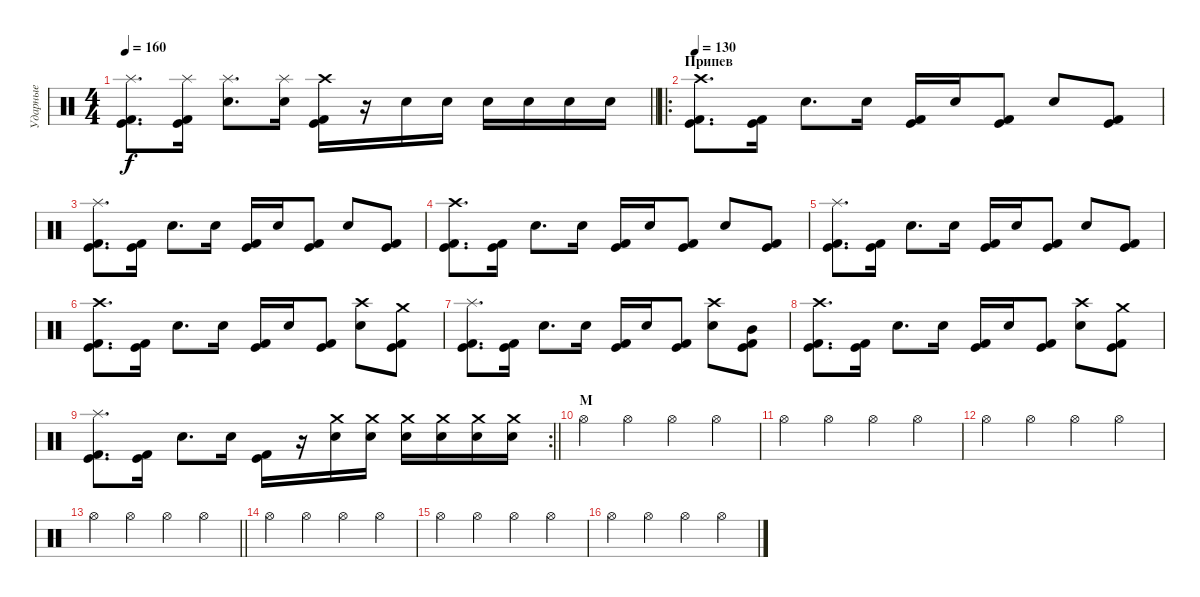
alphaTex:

\track ("Ударные" "Ударные") {solo instrument percussion}
\staff {score}
\articulation defaults
\ts (4 4)
\tempo 160
\clef neutral
\barLineRight lightlight
\ks c
("Splash (hit)" "Kick (hit)" "Kick (hit) 2").8{d dy f} ("Splash (hit)" "Kick (hit)" "Kick (hit) 2").16 ("Splash (hit)" "Snare (hit) 2").8{d} ("Splash (hit)" "Snare (hit) 2").16 ("Crash high (hit)" "Kick (hit)" "Kick (hit) 2").16 r.16 "Snare (hit) 2".16 "Snare (hit) 2".16 "Snare (hit) 2".16 "Snare (hit) 2".16 "Snare (hit) 2".16 "Snare (hit) 2".16 |
\ro
\section ("" "Припев")
\tempo 130
("Crash high (hit)" "Kick (hit)" "Kick (hit) 2").8{d} ("Kick (hit)" "Kick (hit) 2").16 "Snare (hit) 2".8{d} "Snare (hit) 2".16 ("Kick (hit)" "Kick (hit) 2").16 "Snare (hit) 2".16 ("Kick (hit)" "Kick (hit) 2").8 "Snare (hit) 2".8 ("Kick (hit)" "Kick (hit) 2").8 |
("Splash (hit)" "Kick (hit)" "Kick (hit) 2").8{d} ("Kick (hit)" "Kick (hit) 2").16 "Snare (hit) 2".8{d} "Snare (hit) 2".16 ("Kick (hit)" "Kick (hit) 2").16 "Snare (hit) 2".16 ("Kick (hit)" "Kick (hit) 2").8 "Snare (hit) 2".8 ("Kick (hit)" "Kick (hit) 2").8 |
("Crash high (hit)" "Kick (hit)" "Kick (hit) 2").8{d} ("Kick (hit)" "Kick (hit) 2").16 "Snare (hit) 2".8{d} "Snare (hit) 2".16 ("Kick (hit)" "Kick (hit) 2").16 "Snare (hit) 2".16 ("Kick (hit)" "Kick (hit) 2").8 "Snare (hit) 2".8 ("Kick (hit)" "Kick (hit) 2").8 |
("Splash (hit)" "Kick (hit)" "Kick (hit) 2").8{d} ("Kick (hit)" "Kick (hit) 2").16 "Snare (hit) 2".8{d} "Snare (hit) 2".16 ("Kick (hit)" "Kick (hit) 2").16 "Snare (hit) 2".16 ("Kick (hit)" "Kick (hit) 2").8 "Snare (hit) 2".8 ("Kick (hit)" "Kick (hit) 2").8 |
("Crash high (hit)" "Kick (hit)" "Kick (hit) 2").8{d} ("Kick (hit)" "Kick (hit) 2").16 "Snare (hit) 2".8{d} "Snare (hit) 2".16 ("Kick (hit)" "Kick (hit) 2").16 "Snare (hit) 2".16 ("Kick (hit)" "Kick (hit) 2").8 ("Crash high (hit)" "Snare (hit) 2").8 ("Crash medium (hit)" "Kick (hit)" "Kick (hit) 2").8 |
("Splash (hit)" "Kick (hit)" "Kick (hit) 2").8{d} ("Kick (hit)" "Kick (hit) 2").16 "Snare (hit) 2".8{d} "Snare (hit) 2".16 ("Kick (hit)" "Kick (hit) 2").16 "Snare (hit) 2".16 ("Kick (hit)" "Kick (hit) 2").8 ("Crash high (hit)" "Snare (hit) 2").8 ("Mid Tom (hit)" "Kick (hit)" "Kick (hit) 2").8 |
("Crash high (hit)" "Kick (hit)" "Kick (hit) 2").8{d} ("Kick (hit)" "Kick (hit) 2").16 "Snare (hit) 2".8{d} "Snare (hit) 2".16 ("Kick (hit)" "Kick (hit) 2").16 "Snare (hit) 2".16 ("Kick (hit)" "Kick (hit) 2").8 ("Crash high (hit)" "Snare (hit) 2").8 ("Crash medium (hit)" "Kick (hit)" "Kick (hit) 2").8 |
\rc 2
\barLineRight lightlight
("Splash (hit)" "Kick (hit)" "Kick (hit) 2").8{d} ("Kick (hit)" "Kick (hit) 2").16 "Snare (hit) 2".8{d} "Snare (hit) 2".16 ("Kick (hit)" "Kick (hit) 2").16 r.16 ("Crash medium (hit)" "Snare (hit) 2").16 ("Crash medium (hit)" "Snare (hit) 2").16 ("Crash medium (hit)" "Snare (hit) 2").16 ("Crash medium (hit)" "Snare (hit) 2").16 ("Crash medium (hit)" "Snare (hit) 2").16 ("Crash medium (hit)" "Snare (hit) 2").16 |
\section ("" "М")
"Hi-Hat (open)".4 "Hi-Hat (open)".4 "Hi-Hat (open)".4 "Hi-Hat (open)".4 |
"Hi-Hat (open)".4 "Hi-Hat (open)".4 "Hi-Hat (open)".4 "Hi-Hat (open)".4 |
"Hi-Hat (open)".4 "Hi-Hat (open)".4 "Hi-Hat (open)".4 "Hi-Hat (open)".4 |
\barLineRight lightlight "Hi-Hat (open)".4 "Hi-Hat (open)".4 "Hi-Hat (open)".4 "Hi-Hat (open)".4
|
"Hi-Hat (open)".4 "Hi-Hat (open)".4 "Hi-Hat (open)".4 "Hi-Hat (open)".4 |
"Hi-Hat (open)".4 "Hi-Hat (open)".4 "Hi-Hat (open)".4 "Hi-Hat (open)".4 |
"Hi-Hat (open)".4 "Hi-Hat (open)".4 "Hi-Hat (open)".4 "Hi-Hat (open)".4
